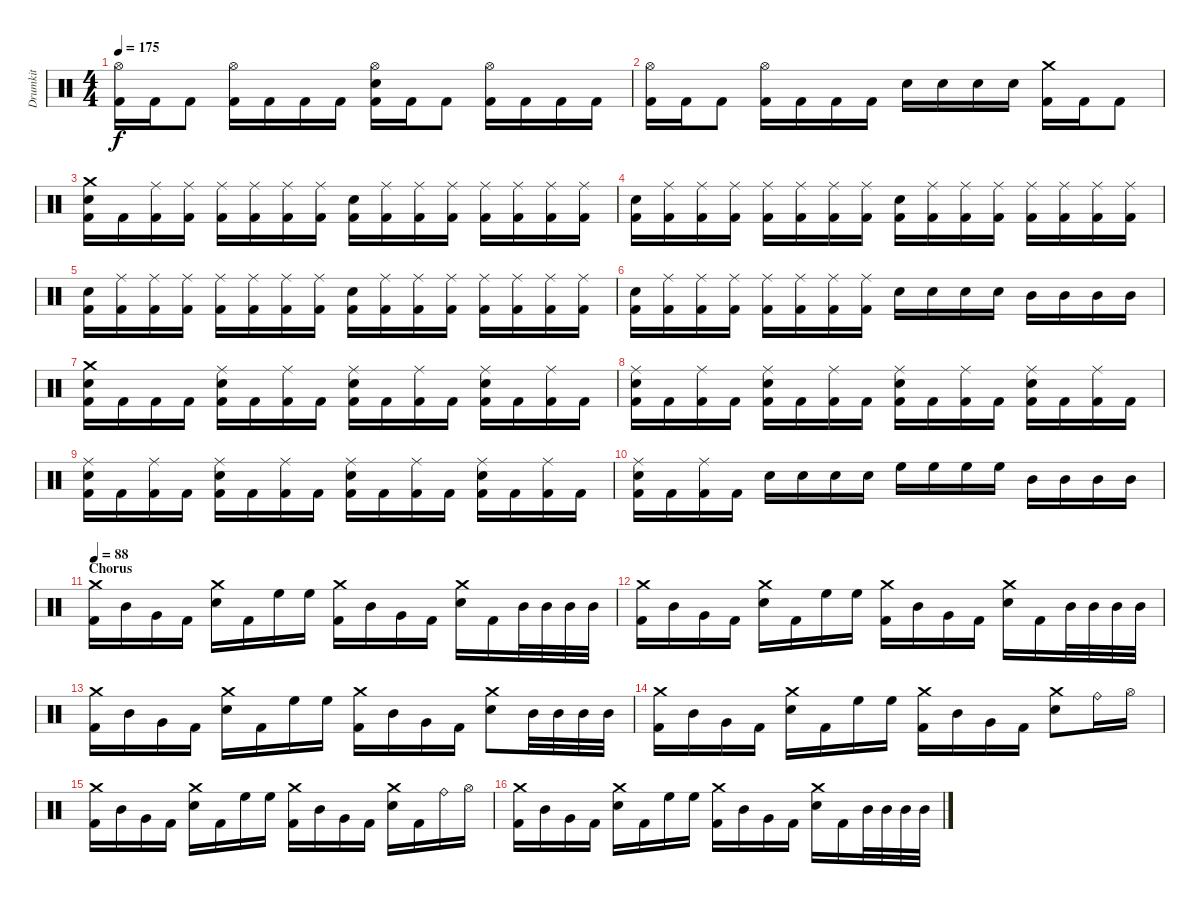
\track ("Drumkit" "Drumkit") {instrument percussion}
\staff {score}
\articulation defaults
\ts (4 4)
\tempo 175
\clef neutral
\ks c
("Hi-Hat (open)" "Kick (hit) 2").16{dy f} "Kick (hit) 2".16 "Kick (hit) 2".8 ("Hi-Hat (open)" "Kick (hit) 2").16 "Kick (hit) 2".16 "Kick (hit) 2".16 "Kick (hit) 2".16 ("Hi-Hat (open)" "Snare (hit) 2" "Kick (hit) 2").16 "Kick (hit) 2".16 "Kick (hit) 2".8 ("Hi-Hat (open)" "Kick (hit) 2").16 "Kick (hit) 2".16 "Kick (hit) 2".16 "Kick (hit) 2".16 |
("Hi-Hat (open)" "Kick (hit) 2").16 "Kick (hit) 2".16 "Kick (hit) 2".8 ("Hi-Hat (open)" "Kick (hit) 2").16 "Kick (hit) 2".16 "Kick (hit) 2".16 "Kick (hit) 2".16 "Snare (hit) 2".16 "Snare (hit) 2".16 "Snare (hit) 2".16 "Snare (hit) 2".16 ("Crash medium (hit)" "Kick (hit) 2").16 "Kick (hit) 2".16 "Kick (hit) 2".8 |
("Crash medium (hit)" "Snare (hit) 2" "Kick (hit) 2").16 "Kick (hit) 2".16 ("Ride (middle)" "Kick (hit) 2").16 ("Ride (middle)" "Kick (hit) 2").16 ("Ride (middle)" "Kick (hit) 2").16 ("Ride (middle)" "Kick (hit) 2").16 ("Ride (middle)" "Kick (hit) 2").16 ("Ride (middle)" "Kick (hit) 2").16 ("Snare (hit) 2" "Kick (hit) 2").16 ("Ride (middle)" "Kick (hit) 2").16 ("Ride (middle)" "Kick (hit) 2").16 ("Ride (middle)" "Kick (hit) 2").16 ("Ride (middle)" "Kick (hit) 2").16 ("Ride (middle)" "Kick (hit) 2").16 ("Ride (middle)" "Kick (hit) 2").16 ("Ride (middle)" "Kick (hit) 2").16 |
("Snare (hit) 2" "Kick (hit) 2").16 ("Ride (middle)" "Kick (hit) 2").16 ("Ride (middle)" "Kick (hit) 2").16 ("Ride (middle)" "Kick (hit) 2").16 ("Ride (middle)" "Kick (hit) 2").16 ("Ride (middle)" "Kick (hit) 2").16 ("Ride (middle)" "Kick (hit) 2").16 ("Ride (middle)" "Kick (hit) 2").16 ("Snare (hit) 2" "Kick (hit) 2").16 ("Ride (middle)" "Kick (hit) 2").16 ("Ride (middle)" "Kick (hit) 2").16 ("Ride (middle)" "Kick (hit) 2").16 ("Ride (middle)" "Kick (hit) 2").16 ("Ride (middle)" "Kick (hit) 2").16 ("Ride (middle)" "Kick (hit) 2").16 ("Ride (middle)" "Kick (hit) 2").16 |
("Snare (hit) 2" "Kick (hit) 2").16 ("Ride (middle)" "Kick (hit) 2").16 ("Ride (middle)" "Kick (hit) 2").16 ("Ride (middle)" "Kick (hit) 2").16 ("Ride (middle)" "Kick (hit) 2").16 ("Ride (middle)" "Kick (hit) 2").16 ("Ride (middle)" "Kick (hit) 2").16 ("Ride (middle)" "Kick (hit) 2").16 ("Snare (hit) 2" "Kick (hit) 2").16 ("Ride (middle)" "Kick (hit) 2").16 ("Ride (middle)" "Kick (hit) 2").16 ("Ride (middle)" "Kick (hit) 2").16 ("Ride (middle)" "Kick (hit) 2").16 ("Ride (middle)" "Kick (hit) 2").16 ("Ride (middle)" "Kick (hit) 2").16 ("Ride (middle)" "Kick (hit) 2").16 |
("Snare (hit) 2" "Kick (hit) 2").16 ("Ride (middle)" "Kick (hit) 2").16 ("Ride (middle)" "Kick (hit) 2").16 ("Ride (middle)" "Kick (hit) 2").16 ("Ride (middle)" "Kick (hit) 2").16 ("Ride (middle)" "Kick (hit) 2").16 ("Ride (middle)" "Kick (hit) 2").16 ("Ride (middle)" "Kick (hit) 2").16 "Snare (hit) 2".16 "Snare (hit) 2".16 "Snare (hit) 2".16 "Snare (hit) 2".16 "Mid Tom (hit)".16 "Mid Tom (hit)".16 "Mid Tom (hit)".16 "Mid Tom (hit)".16 |
("Crash medium (hit)" "Snare (hit) 2" "Kick (hit) 2").16 "Kick (hit) 2".16 "Kick (hit) 2".16 "Kick (hit) 2".16 ("Ride (middle)" "Snare (hit) 2" "Kick (hit) 2").16 "Kick (hit) 2".16 ("Ride (middle)" "Kick (hit) 2").16 "Kick (hit) 2".16 ("Ride (middle)" "Snare (hit) 2" "Kick (hit) 2").16 "Kick (hit) 2".16 ("Ride (middle)" "Kick (hit) 2").16 "Kick (hit) 2".16 ("Ride (middle)" "Snare (hit) 2" "Kick (hit) 2").16 "Kick (hit) 2".16 ("Ride (middle)" "Kick (hit) 2").16 "Kick (hit) 2".16 |
("Ride (middle)" "Snare (hit) 2" "Kick (hit) 2").16 "Kick (hit) 2".16 ("Ride (middle)" "Kick (hit) 2").16 "Kick (hit) 2".16 ("Ride (middle)" "Snare (hit) 2" "Kick (hit) 2").16 "Kick (hit) 2".16 ("Ride (middle)" "Kick (hit) 2").16 "Kick (hit) 2".16 ("Ride (middle)" "Snare (hit) 2" "Kick (hit) 2").16 "Kick (hit) 2".16 ("Ride (middle)" "Kick (hit) 2").16 "Kick (hit) 2".16 ("Ride (middle)" "Snare (hit) 2" "Kick (hit) 2").16 "Kick (hit) 2".16 ("Ride (middle)" "Kick (hit) 2").16 "Kick (hit) 2".16 |
("Ride (middle)" "Snare (hit) 2" "Kick (hit) 2").16 "Kick (hit) 2".16 ("Ride (middle)" "Kick (hit) 2").16 "Kick (hit) 2".16 ("Ride (middle)" "Snare (hit) 2" "Kick (hit) 2").16 "Kick (hit) 2".16 ("Ride (middle)" "Kick (hit) 2").16 "Kick (hit) 2".16 ("Ride (middle)" "Snare (hit) 2" "Kick (hit) 2").16 "Kick (hit) 2".16 ("Ride (middle)" "Kick (hit) 2").16 "Kick (hit) 2".16 ("Ride (middle)" "Snare (hit) 2" "Kick (hit) 2").16 "Kick (hit) 2".16 ("Ride (middle)" "Kick (hit) 2").16 "Kick (hit) 2".16 |
("Ride (middle)" "Snare (hit) 2" "Kick (hit) 2").16 "Kick (hit) 2".16 ("Ride (middle)" "Kick (hit) 2").16 "Kick (hit) 2".16 "Snare (hit) 2".16 "Snare (hit) 2".16 "Snare (hit) 2".16 "Snare (hit) 2".16 "High Floor Tom (hit)".16 "High Floor Tom (hit)".16 "High Floor Tom (hit)".16 "High Floor Tom (hit)".16 "Mid Tom (hit)".16 "Mid Tom (hit)".16 "Mid Tom (hit)".16 "Mid Tom (hit)".16 |
\section ("" "Chorus")
\tempo 88
("Crash medium (hit)" "Kick (hit) 2").16 "Mid Tom (hit)".16 "Very Low Tom (hit)".16 "Kick (hit) 2".16 ("Crash medium (hit)" "Snare (hit) 2").16 "Kick (hit) 2".16 "High Floor Tom (hit)".16 "High Floor Tom (hit)".16 ("Crash medium (hit)" "Kick (hit) 2").16 "Mid Tom (hit)".16 "Very Low Tom (hit)".16 "Kick (hit) 2".16 ("Crash medium (hit)" "Snare (hit) 2").16 "Kick (hit) 2".16 "Mid Tom (hit)".32 "Mid Tom (hit)".32 "Mid Tom (hit)".32 "Mid Tom (hit)".32 |
("Crash medium (hit)" "Kick (hit) 2").16 "Mid Tom (hit)".16 "Very Low Tom (hit)".16 "Kick (hit) 2".16 ("Crash medium (hit)" "Snare (hit) 2").16 "Kick (hit) 2".16 "High Floor Tom (hit)".16 "High Floor Tom (hit)".16 ("Crash medium (hit)" "Kick (hit) 2").16 "Mid Tom (hit)".16 "Very Low Tom (hit)".16 "Kick (hit) 2".16 ("Crash medium (hit)" "Snare (hit) 2").16 "Kick (hit) 2".16 "Mid Tom (hit)".32 "Mid Tom (hit)".32 "Mid Tom (hit)".32 "Mid Tom (hit)".32 |
("Crash medium (hit)" "Kick (hit) 2").16 "Mid Tom (hit)".16 "Very Low Tom (hit)".16 "Kick (hit) 2".16 ("Crash medium (hit)" "Snare (hit) 2").16 "Kick (hit) 2".16 "High Floor Tom (hit)".16 "High Floor Tom (hit)".16 ("Crash medium (hit)" "Kick (hit) 2").16 "Mid Tom (hit)".16 "Very Low Tom (hit)".16 "Kick (hit) 2".16 ("Crash medium (hit)" "Snare (hit) 2").8 "Mid Tom (hit)".32 "Mid Tom (hit)".32 "Mid Tom (hit)".32 "Mid Tom (hit)".32 |
("Crash medium (hit)" "Kick (hit) 2").16 "Mid Tom (hit)".16 "Very Low Tom (hit)".16 "Kick (hit) 2".16 ("Crash medium (hit)" "Snare (hit) 2").16 "Kick (hit) 2".16 "High Floor Tom (hit)".16 "High Floor Tom (hit)".16 ("Crash medium (hit)" "Kick (hit) 2").16 "Mid Tom (hit)".16 "Very Low Tom (hit)".16 "Kick (hit) 2".16 ("Crash medium (hit)" "Snare (hit) 2").8 "Ride (bell)".16 "Hi-Hat (open)".16 |
("Crash medium (hit)" "Kick (hit) 2").16 "Mid Tom (hit)".16 "Very Low Tom (hit)".16 "Kick (hit) 2".16 ("Crash medium (hit)" "Snare (hit) 2").16 "Kick (hit) 2".16 "High Floor Tom (hit)".16 "High Floor Tom (hit)".16 ("Crash medium (hit)" "Kick (hit) 2").16 "Mid Tom (hit)".16 "Very Low Tom (hit)".16 "Kick (hit) 2".16 ("Crash medium (hit)" "Snare (hit) 2").16 "Kick (hit) 2".16 "Ride (bell)".16 "Hi-Hat (open)".16 |
("Crash medium (hit)" "Kick (hit) 2").16 "Mid Tom (hit)".16 "Very Low Tom (hit)".16 "Kick (hit) 2".16 ("Crash medium (hit)" "Snare (hit) 2").16 "Kick (hit) 2".16 "High Floor Tom (hit)".16 "High Floor Tom (hit)".16 ("Crash medium (hit)" "Kick (hit) 2").16 "Mid Tom (hit)".16 "Very Low Tom (hit)".16 "Kick (hit) 2".16 ("Crash medium (hit)" "Snare (hit) 2").16 "Kick (hit) 2".16 "Mid Tom (hit)".32 "Mid Tom (hit)".32 "Mid Tom (hit)".32 "Mid Tom (hit)".32
